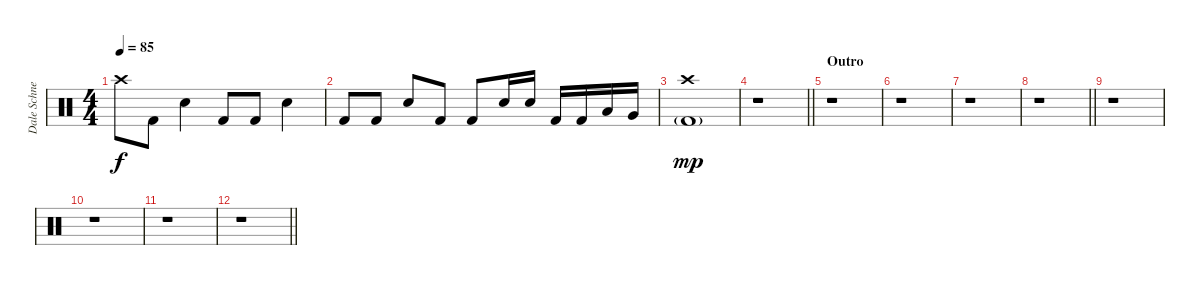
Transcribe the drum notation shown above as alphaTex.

\track ("Dale Schnettler (Drums)" "Dale Schne") {instrument percussion}
\staff {score}
\articulation defaults
\ts (4 4)
\tempo 85
\clef neutral
\ks c "Crash high (hit)".8{dy f} "Kick (hit) 2".8 "Electric Snare (hit)".4 "Kick (hit) 2".8 "Kick (hit) 2".8 "Electric Snare (hit)".4
|
"Kick (hit) 2".8 "Kick (hit) 2".8 "Electric Snare (hit)".8 "Kick (hit) 2".8 "Kick (hit) 2".8 "Electric Snare (hit)".16 "Electric Snare (hit)".16 "Kick (hit) 2".16 "Kick (hit) 2".16 "Low Tom (hit)".16 "Very Low Tom (hit)".16 |
("Crash high (hit)" "Kick (hit) 2"{g}).1{dy mp} |
\barLineRight lightlight
r.1 |
\section ("" "Outro")
r.1 |
r.1 |
r.1 |
\barLineRight lightlight
r.1 |
r.1 |
r.1 |
r.1 |
\barLineRight lightlight
r.1
